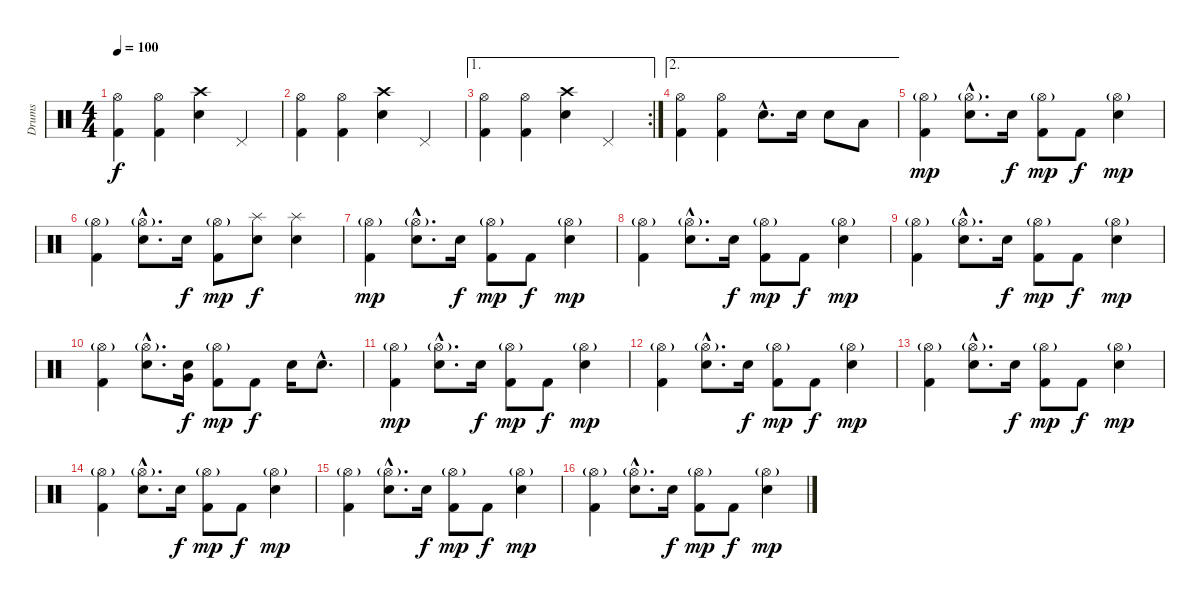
\track ("Drums" "Drums") {instrument percussion}
\staff {score}
\articulation defaults
\ts (4 4)
\tempo 100
\clef neutral
\ks c
("Hi-Hat (open)" "Kick (hit) 2").4{dy f} ("Hi-Hat (open)" "Kick (hit) 2").4 ("Crash high (hit)" "Electric Snare (hit)").4 "Pedal Hi-Hat (hit)".4 |
("Hi-Hat (open)" "Kick (hit) 2").4 ("Hi-Hat (open)" "Kick (hit) 2").4 ("Crash high (hit)" "Electric Snare (hit)").4 "Pedal Hi-Hat (hit)".4 |
\ae 1
\rc 2
("Hi-Hat (open)" "Kick (hit) 2").4 ("Hi-Hat (open)" "Kick (hit) 2").4 ("Crash high (hit)" "Electric Snare (hit)").4 "Pedal Hi-Hat (hit)".4 |
\ae 2
("Hi-Hat (open)" "Kick (hit) 2").4 ("Hi-Hat (open)" "Kick (hit) 2").4 "Electric Snare (hit)"{hac}.8{d} "Electric Snare (hit)".16 "Electric Snare (hit)".8 "Low Tom (hit)".8 |
("Hi-Hat (open)"{g} "Kick (hit) 2").4{dy mp} ("Hi-Hat (open)"{g hac} "Electric Snare (hit)"{hac}).8{d} "Electric Snare (hit)".16{dy f} ("Hi-Hat (open)"{g} "Kick (hit) 2").8{dy mp} "Kick (hit) 2".8{dy f} ("Hi-Hat (open)"{g} "Electric Snare (hit)").4{dy mp} |
("Hi-Hat (open)"{g} "Kick (hit) 2").4 ("Hi-Hat (open)"{g hac} "Electric Snare (hit)"{hac}).8{d} "Electric Snare (hit)".16{dy f} ("Hi-Hat (open)"{g} "Kick (hit) 2").8{dy mp} ("Splash (hit)" "Electric Snare (hit)").8{dy f} ("Splash (hit)" "Electric Snare (hit)").4 |
("Hi-Hat (open)"{g} "Kick (hit) 2").4{dy mp} ("Hi-Hat (open)"{g hac} "Electric Snare (hit)"{hac}).8{d} "Electric Snare (hit)".16{dy f} ("Hi-Hat (open)"{g} "Kick (hit) 2").8{dy mp} "Kick (hit) 2".8{dy f} ("Hi-Hat (open)"{g} "Electric Snare (hit)").4{dy mp} |
("Hi-Hat (open)"{g} "Kick (hit) 2").4 ("Hi-Hat (open)"{g hac} "Electric Snare (hit)"{hac}).8{d} "Electric Snare (hit)".16{dy f} ("Hi-Hat (open)"{g} "Kick (hit) 2").8{dy mp} "Kick (hit) 2".8{dy f} ("Hi-Hat (open)"{g} "Electric Snare (hit)").4{dy mp} |
("Hi-Hat (open)"{g} "Kick (hit) 2").4 ("Hi-Hat (open)"{g hac} "Electric Snare (hit)"{hac}).8{d} "Electric Snare (hit)".16{dy f} ("Hi-Hat (open)"{g} "Kick (hit) 2").8{dy mp} "Kick (hit) 2".8{dy f} ("Hi-Hat (open)"{g} "Electric Snare (hit)").4{dy mp} |
("Hi-Hat (open)"{g} "Kick (hit) 2").4 ("Hi-Hat (open)"{g hac} "Electric Snare (hit)"{hac}).8{d} ("Very Low Tom (hit)" "Electric Snare (hit)").16{dy f} ("Hi-Hat (open)"{g} "Kick (hit) 2").8{dy mp} "Kick (hit) 2".8{dy f} "Electric Snare (hit)".16 "Electric Snare (hit)"{hac}.8{d} |
("Hi-Hat (open)"{g} "Kick (hit) 2").4{dy mp} ("Hi-Hat (open)"{g hac} "Electric Snare (hit)"{hac}).8{d} "Electric Snare (hit)".16{dy f} ("Hi-Hat (open)"{g} "Kick (hit) 2").8{dy mp} "Kick (hit) 2".8{dy f} ("Hi-Hat (open)"{g} "Electric Snare (hit)").4{dy mp} |
("Hi-Hat (open)"{g} "Kick (hit) 2").4 ("Hi-Hat (open)"{g hac} "Electric Snare (hit)"{hac}).8{d} "Electric Snare (hit)".16{dy f} ("Hi-Hat (open)"{g} "Kick (hit) 2").8{dy mp} "Kick (hit) 2".8{dy f} ("Hi-Hat (open)"{g} "Electric Snare (hit)").4{dy mp} |
("Hi-Hat (open)"{g} "Kick (hit) 2").4 ("Hi-Hat (open)"{g hac} "Electric Snare (hit)"{hac}).8{d} "Electric Snare (hit)".16{dy f} ("Hi-Hat (open)"{g} "Kick (hit) 2").8{dy mp} "Kick (hit) 2".8{dy f} ("Hi-Hat (open)"{g} "Electric Snare (hit)").4{dy mp} |
("Hi-Hat (open)"{g} "Kick (hit) 2").4 ("Hi-Hat (open)"{g hac} "Electric Snare (hit)"{hac}).8{d} "Electric Snare (hit)".16{dy f} ("Hi-Hat (open)"{g} "Kick (hit) 2").8{dy mp} "Kick (hit) 2".8{dy f} ("Hi-Hat (open)"{g} "Electric Snare (hit)").4{dy mp} |
("Hi-Hat (open)"{g} "Kick (hit) 2").4 ("Hi-Hat (open)"{g hac} "Electric Snare (hit)"{hac}).8{d} "Electric Snare (hit)".16{dy f} ("Hi-Hat (open)"{g} "Kick (hit) 2").8{dy mp} "Kick (hit) 2".8{dy f} ("Hi-Hat (open)"{g} "Electric Snare (hit)").4{dy mp} |
("Hi-Hat (open)"{g} "Kick (hit) 2").4 ("Hi-Hat (open)"{g hac} "Electric Snare (hit)"{hac}).8{d} "Electric Snare (hit)".16{dy f} ("Hi-Hat (open)"{g} "Kick (hit) 2").8{dy mp} "Kick (hit) 2".8{dy f} ("Hi-Hat (open)"{g} "Electric Snare (hit)").4{dy mp}
